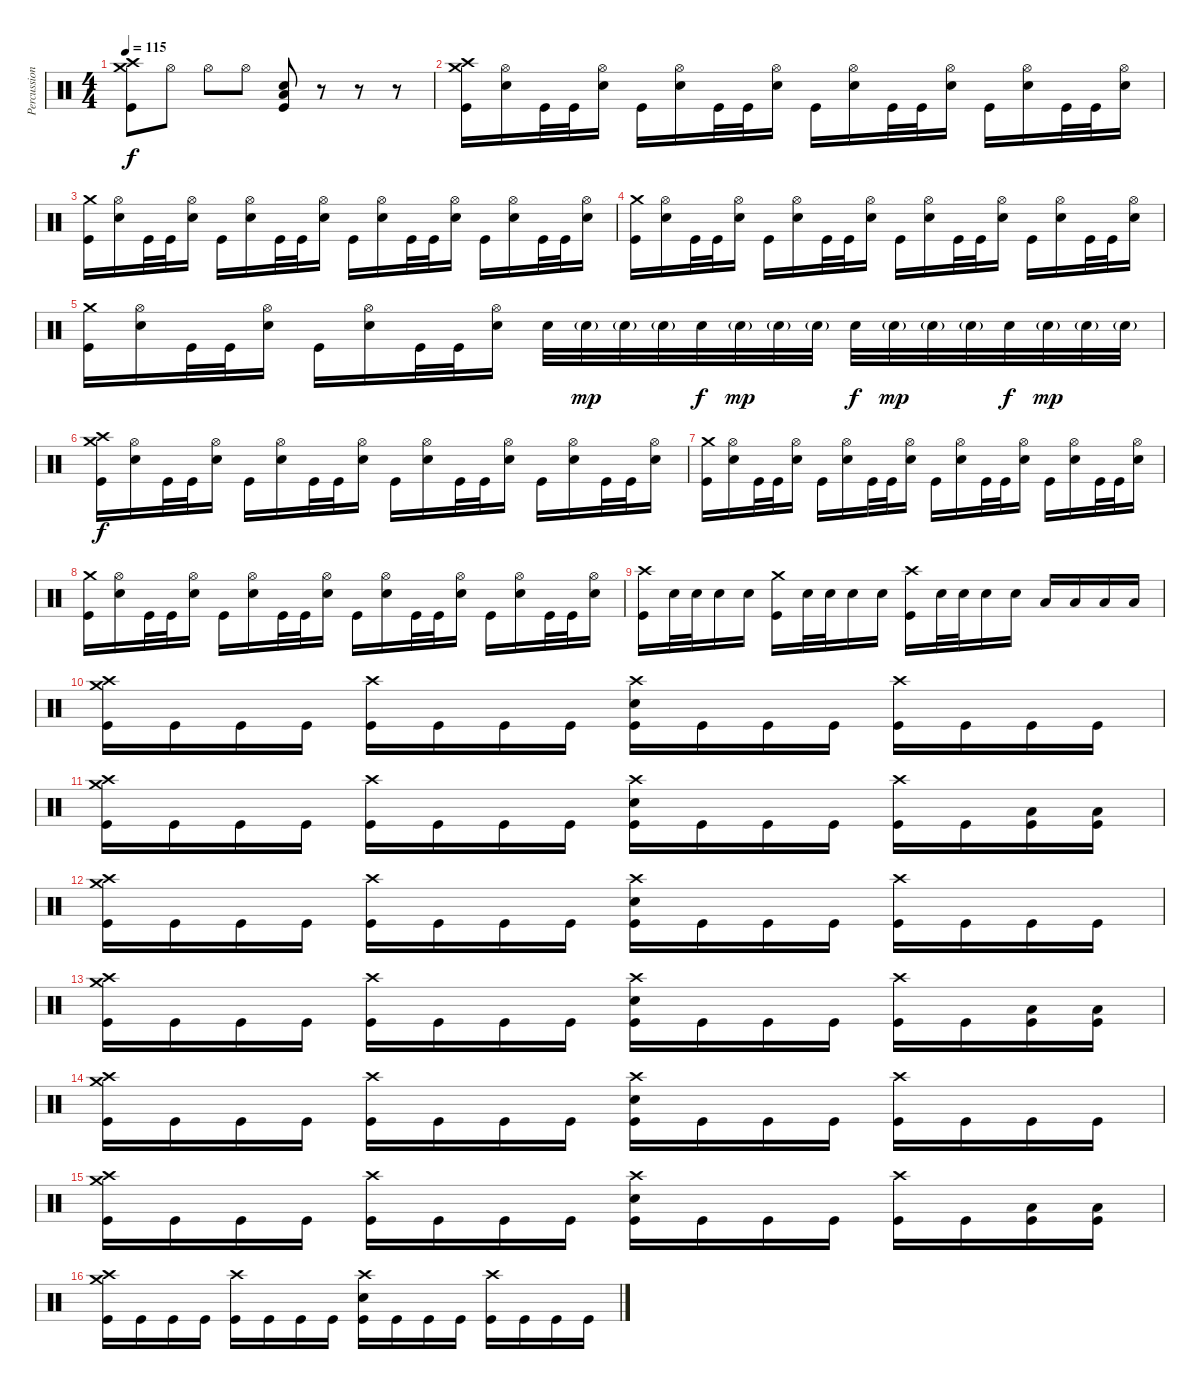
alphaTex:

\track ("Percussion" "Percussion") {instrument percussion}
\staff {score}
\articulation defaults
\ts (4 4)
\tempo 115
\clef neutral
\ks c
("Crash medium (hit)" "Crash high (hit)" "Kick (hit)").8{dy f} "Hi-Hat (open)".8 "Hi-Hat (open)".8 "Hi-Hat (open)".8 ("Snare (hit) 2" "Low Floor Tom (hit)" "Kick (hit)").8 r.8 r.8 r.8 |
("Crash medium (hit)" "Crash high (hit)" "Kick (hit)").16 ("Hi-Hat (open)" "Snare (hit) 2").16 "Kick (hit)".32 "Kick (hit)".32 ("Hi-Hat (open)" "Snare (hit) 2").16 "Kick (hit)".16 ("Hi-Hat (open)" "Snare (hit) 2").16 "Kick (hit)".32 "Kick (hit)".32 ("Hi-Hat (open)" "Snare (hit) 2").16 "Kick (hit)".16 ("Hi-Hat (open)" "Snare (hit) 2").16 "Kick (hit)".32 "Kick (hit)".32 ("Hi-Hat (open)" "Snare (hit) 2").16 "Kick (hit)".16 ("Hi-Hat (open)" "Snare (hit) 2").16 "Kick (hit)".32 "Kick (hit)".32 ("Hi-Hat (open)" "Snare (hit) 2").16 |
("Crash medium (hit)" "Kick (hit)").16 ("Hi-Hat (open)" "Snare (hit) 2").16 "Kick (hit)".32 "Kick (hit)".32 ("Hi-Hat (open)" "Snare (hit) 2").16 "Kick (hit)".16 ("Hi-Hat (open)" "Snare (hit) 2").16 "Kick (hit)".32 "Kick (hit)".32 ("Hi-Hat (open)" "Snare (hit) 2").16 "Kick (hit)".16 ("Hi-Hat (open)" "Snare (hit) 2").16 "Kick (hit)".32 "Kick (hit)".32 ("Hi-Hat (open)" "Snare (hit) 2").16 "Kick (hit)".16 ("Hi-Hat (open)" "Snare (hit) 2").16 "Kick (hit)".32 "Kick (hit)".32 ("Hi-Hat (open)" "Snare (hit) 2").16 |
("Crash medium (hit)" "Kick (hit)").16 ("Hi-Hat (open)" "Snare (hit) 2").16 "Kick (hit)".32 "Kick (hit)".32 ("Hi-Hat (open)" "Snare (hit) 2").16 "Kick (hit)".16 ("Hi-Hat (open)" "Snare (hit) 2").16 "Kick (hit)".32 "Kick (hit)".32 ("Hi-Hat (open)" "Snare (hit) 2").16 "Kick (hit)".16 ("Hi-Hat (open)" "Snare (hit) 2").16 "Kick (hit)".32 "Kick (hit)".32 ("Hi-Hat (open)" "Snare (hit) 2").16 "Kick (hit)".16 ("Hi-Hat (open)" "Snare (hit) 2").16 "Kick (hit)".32 "Kick (hit)".32 ("Hi-Hat (open)" "Snare (hit) 2").16 |
("Crash medium (hit)" "Kick (hit)").16 ("Hi-Hat (open)" "Snare (hit) 2").16 "Kick (hit)".32 "Kick (hit)".32 ("Hi-Hat (open)" "Snare (hit) 2").16 "Kick (hit)".16 ("Hi-Hat (open)" "Snare (hit) 2").16 "Kick (hit)".32 "Kick (hit)".32 ("Hi-Hat (open)" "Snare (hit) 2").16 "Snare (hit) 2".32 "Snare (hit) 2"{g}.32{dy mp} "Snare (hit) 2"{g}.32 "Snare (hit) 2"{g}.32 "Snare (hit) 2".32{dy f} "Snare (hit) 2"{g}.32{dy mp} "Snare (hit) 2"{g}.32 "Snare (hit) 2"{g}.32 "Snare (hit) 2".32{dy f} "Snare (hit) 2"{g}.32{dy mp} "Snare (hit) 2"{g}.32 "Snare (hit) 2"{g}.32 "Snare (hit) 2".32{dy f} "Snare (hit) 2"{g}.32{dy mp} "Snare (hit) 2"{g}.32 "Snare (hit) 2"{g}.32 |
("Crash medium (hit)" "Crash high (hit)" "Kick (hit)").16{dy f} ("Hi-Hat (open)" "Snare (hit) 2").16 "Kick (hit)".32 "Kick (hit)".32 ("Hi-Hat (open)" "Snare (hit) 2").16 "Kick (hit)".16 ("Hi-Hat (open)" "Snare (hit) 2").16 "Kick (hit)".32 "Kick (hit)".32 ("Hi-Hat (open)" "Snare (hit) 2").16 "Kick (hit)".16 ("Hi-Hat (open)" "Snare (hit) 2").16 "Kick (hit)".32 "Kick (hit)".32 ("Hi-Hat (open)" "Snare (hit) 2").16 "Kick (hit)".16 ("Hi-Hat (open)" "Snare (hit) 2").16 "Kick (hit)".32 "Kick (hit)".32 ("Hi-Hat (open)" "Snare (hit) 2").16 |
("Crash medium (hit)" "Kick (hit)").16 ("Hi-Hat (open)" "Snare (hit) 2").16 "Kick (hit)".32 "Kick (hit)".32 ("Hi-Hat (open)" "Snare (hit) 2").16 "Kick (hit)".16 ("Hi-Hat (open)" "Snare (hit) 2").16 "Kick (hit)".32 "Kick (hit)".32 ("Hi-Hat (open)" "Snare (hit) 2").16 "Kick (hit)".16 ("Hi-Hat (open)" "Snare (hit) 2").16 "Kick (hit)".32 "Kick (hit)".32 ("Hi-Hat (open)" "Snare (hit) 2").16 "Kick (hit)".16 ("Hi-Hat (open)" "Snare (hit) 2").16 "Kick (hit)".32 "Kick (hit)".32 ("Hi-Hat (open)" "Snare (hit) 2").16 |
("Crash medium (hit)" "Kick (hit)").16 ("Hi-Hat (open)" "Snare (hit) 2").16 "Kick (hit)".32 "Kick (hit)".32 ("Hi-Hat (open)" "Snare (hit) 2").16 "Kick (hit)".16 ("Hi-Hat (open)" "Snare (hit) 2").16 "Kick (hit)".32 "Kick (hit)".32 ("Hi-Hat (open)" "Snare (hit) 2").16 "Kick (hit)".16 ("Hi-Hat (open)" "Snare (hit) 2").16 "Kick (hit)".32 "Kick (hit)".32 ("Hi-Hat (open)" "Snare (hit) 2").16 "Kick (hit)".16 ("Hi-Hat (open)" "Snare (hit) 2").16 "Kick (hit)".32 "Kick (hit)".32 ("Hi-Hat (open)" "Snare (hit) 2").16 |
("Crash high (hit)" "Kick (hit)").16 "Snare (hit) 2".32 "Snare (hit) 2".32 "Snare (hit) 2".16 "Snare (hit) 2".16 ("Crash medium (hit)" "Kick (hit)").16 "Snare (hit) 2".32 "Snare (hit) 2".32 "Snare (hit) 2".16 "Snare (hit) 2".16 ("Crash high (hit)" "Kick (hit)").16 "Snare (hit) 2".32 "Snare (hit) 2".32 "Snare (hit) 2".16 "Snare (hit) 2".16 "Low Tom (hit)".16 "Low Tom (hit)".16 "Low Floor Tom (hit)".16 "Low Floor Tom (hit)".16 |
("Crash medium (hit)" "Crash high (hit)" "Kick (hit)").16 "Kick (hit)".16 "Kick (hit)".16 "Kick (hit)".16 ("Crash high (hit)" "Kick (hit)").16 "Kick (hit)".16 "Kick (hit)".16 "Kick (hit)".16 ("Crash high (hit)" "Snare (hit) 2" "Kick (hit)").16 "Kick (hit)".16 "Kick (hit)".16 "Kick (hit)".16 ("Crash high (hit)" "Kick (hit)").16 "Kick (hit)".16 "Kick (hit)".16 "Kick (hit)".16 |
("Crash medium (hit)" "Crash high (hit)" "Kick (hit)").16 "Kick (hit)".16 "Kick (hit)".16 "Kick (hit)".16 ("Crash high (hit)" "Kick (hit)").16 "Kick (hit)".16 "Kick (hit)".16 "Kick (hit)".16 ("Crash high (hit)" "Snare (hit) 2" "Kick (hit)").16 "Kick (hit)".16 "Kick (hit)".16 "Kick (hit)".16 ("Crash high (hit)" "Kick (hit)").16 "Kick (hit)".16 ("Low Floor Tom (hit)" "Kick (hit)").16 ("Low Floor Tom (hit)" "Kick (hit)").16 |
("Crash medium (hit)" "Crash high (hit)" "Kick (hit)").16 "Kick (hit)".16 "Kick (hit)".16 "Kick (hit)".16 ("Crash high (hit)" "Kick (hit)").16 "Kick (hit)".16 "Kick (hit)".16 "Kick (hit)".16 ("Crash high (hit)" "Snare (hit) 2" "Kick (hit)").16 "Kick (hit)".16 "Kick (hit)".16 "Kick (hit)".16 ("Crash high (hit)" "Kick (hit)").16 "Kick (hit)".16 "Kick (hit)".16 "Kick (hit)".16 |
("Crash medium (hit)" "Crash high (hit)" "Kick (hit)").16 "Kick (hit)".16 "Kick (hit)".16 "Kick (hit)".16 ("Crash high (hit)" "Kick (hit)").16 "Kick (hit)".16 "Kick (hit)".16 "Kick (hit)".16 ("Crash high (hit)" "Snare (hit) 2" "Kick (hit)").16 "Kick (hit)".16 "Kick (hit)".16 "Kick (hit)".16 ("Crash high (hit)" "Kick (hit)").16 "Kick (hit)".16 ("Low Floor Tom (hit)" "Kick (hit)").16 ("Low Floor Tom (hit)" "Kick (hit)").16 |
("Crash medium (hit)" "Crash high (hit)" "Kick (hit)").16 "Kick (hit)".16 "Kick (hit)".16 "Kick (hit)".16 ("Crash high (hit)" "Kick (hit)").16 "Kick (hit)".16 "Kick (hit)".16 "Kick (hit)".16 ("Crash high (hit)" "Snare (hit) 2" "Kick (hit)").16 "Kick (hit)".16 "Kick (hit)".16 "Kick (hit)".16 ("Crash high (hit)" "Kick (hit)").16 "Kick (hit)".16 "Kick (hit)".16 "Kick (hit)".16 |
("Crash medium (hit)" "Crash high (hit)" "Kick (hit)").16 "Kick (hit)".16 "Kick (hit)".16 "Kick (hit)".16 ("Crash high (hit)" "Kick (hit)").16 "Kick (hit)".16 "Kick (hit)".16 "Kick (hit)".16 ("Crash high (hit)" "Snare (hit) 2" "Kick (hit)").16 "Kick (hit)".16 "Kick (hit)".16 "Kick (hit)".16 ("Crash high (hit)" "Kick (hit)").16 "Kick (hit)".16 ("Low Floor Tom (hit)" "Kick (hit)").16 ("Low Floor Tom (hit)" "Kick (hit)").16 |
("Crash medium (hit)" "Crash high (hit)" "Kick (hit)").16 "Kick (hit)".16 "Kick (hit)".16 "Kick (hit)".16 ("Crash high (hit)" "Kick (hit)").16 "Kick (hit)".16 "Kick (hit)".16 "Kick (hit)".16 ("Crash high (hit)" "Snare (hit) 2" "Kick (hit)").16 "Kick (hit)".16 "Kick (hit)".16 "Kick (hit)".16 ("Crash high (hit)" "Kick (hit)").16 "Kick (hit)".16 "Kick (hit)".16 "Kick (hit)".16
